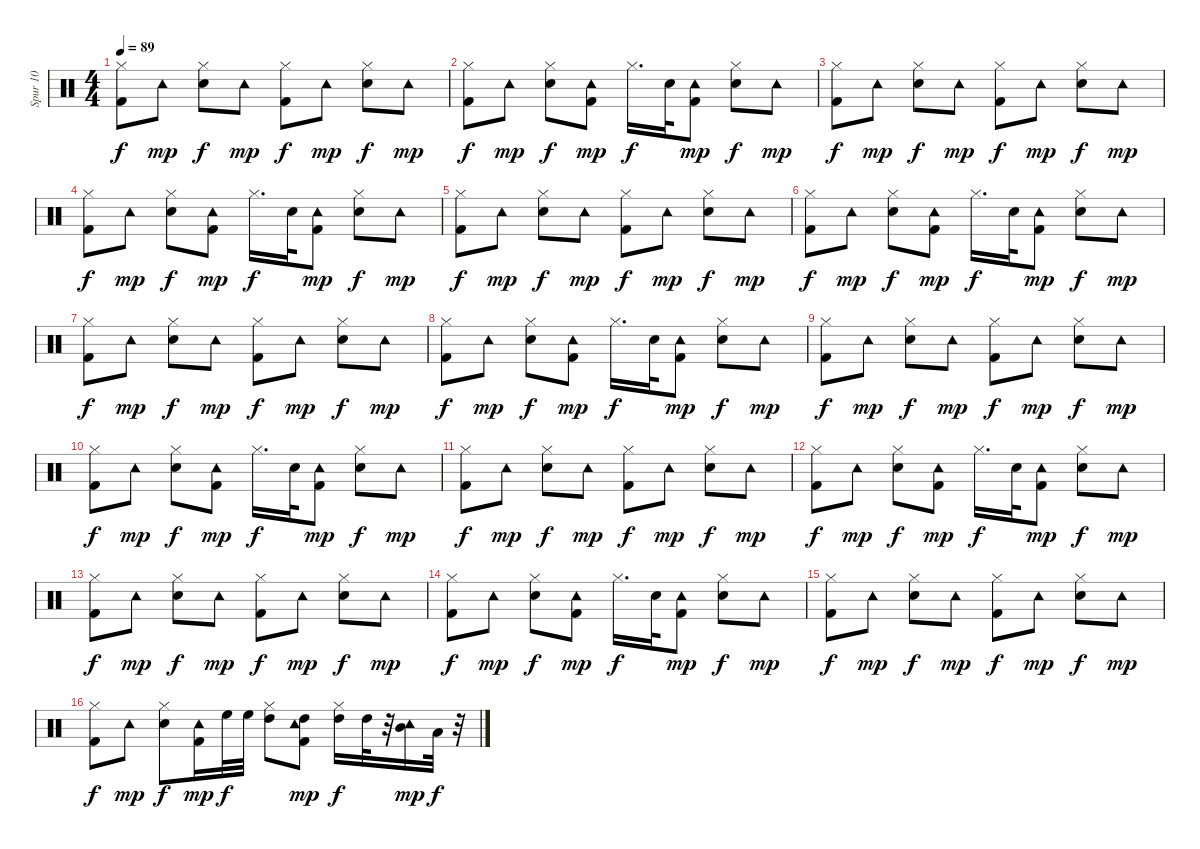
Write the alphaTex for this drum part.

\track ("Spur 10" "Spur 10") {instrument percussion}
\staff {score}
\articulation defaults
\ts (4 4)
\tempo 89
\clef neutral
\ks c
("Kick (hit) 2" "Hi-Hat (closed)").8{dy f} "Tambourine (hit)".8{dy mp} ("Electric Snare (hit)" "Hi-Hat (closed)").8{dy f} "Tambourine (hit)".8{dy mp} ("Kick (hit) 2" "Hi-Hat (closed)").8{dy f} "Tambourine (hit)".8{dy mp} ("Electric Snare (hit)" "Hi-Hat (closed)").8{dy f} "Tambourine (hit)".8{dy mp} |
("Kick (hit) 2" "Hi-Hat (closed)").8{dy f} "Tambourine (hit)".8{dy mp} ("Electric Snare (hit)" "Hi-Hat (closed)").8{dy f} ("Kick (hit) 2" "Tambourine (hit)").8{dy mp} "Hi-Hat (closed)".16{d dy f} "Electric Snare (hit)".32 ("Kick (hit) 2" "Tambourine (hit)").8{dy mp} ("Electric Snare (hit)" "Hi-Hat (closed)").8{dy f} "Tambourine (hit)".8{dy mp} |
("Kick (hit) 2" "Hi-Hat (closed)").8{dy f} "Tambourine (hit)".8{dy mp} ("Electric Snare (hit)" "Hi-Hat (closed)").8{dy f} "Tambourine (hit)".8{dy mp} ("Kick (hit) 2" "Hi-Hat (closed)").8{dy f} "Tambourine (hit)".8{dy mp} ("Electric Snare (hit)" "Hi-Hat (closed)").8{dy f} "Tambourine (hit)".8{dy mp} |
("Kick (hit) 2" "Hi-Hat (closed)").8{dy f} "Tambourine (hit)".8{dy mp} ("Electric Snare (hit)" "Hi-Hat (closed)").8{dy f} ("Kick (hit) 2" "Tambourine (hit)").8{dy mp} "Hi-Hat (closed)".16{d dy f} "Electric Snare (hit)".32 ("Kick (hit) 2" "Tambourine (hit)").8{dy mp} ("Electric Snare (hit)" "Hi-Hat (closed)").8{dy f} "Tambourine (hit)".8{dy mp} |
("Kick (hit) 2" "Hi-Hat (closed)").8{dy f} "Tambourine (hit)".8{dy mp} ("Electric Snare (hit)" "Hi-Hat (closed)").8{dy f} "Tambourine (hit)".8{dy mp} ("Kick (hit) 2" "Hi-Hat (closed)").8{dy f} "Tambourine (hit)".8{dy mp} ("Electric Snare (hit)" "Hi-Hat (closed)").8{dy f} "Tambourine (hit)".8{dy mp} |
("Kick (hit) 2" "Hi-Hat (closed)").8{dy f} "Tambourine (hit)".8{dy mp} ("Electric Snare (hit)" "Hi-Hat (closed)").8{dy f} ("Kick (hit) 2" "Tambourine (hit)").8{dy mp} "Hi-Hat (closed)".16{d dy f} "Electric Snare (hit)".32 ("Kick (hit) 2" "Tambourine (hit)").8{dy mp} ("Electric Snare (hit)" "Hi-Hat (closed)").8{dy f} "Tambourine (hit)".8{dy mp} |
("Kick (hit) 2" "Hi-Hat (closed)").8{dy f} "Tambourine (hit)".8{dy mp} ("Electric Snare (hit)" "Hi-Hat (closed)").8{dy f} "Tambourine (hit)".8{dy mp} ("Kick (hit) 2" "Hi-Hat (closed)").8{dy f} "Tambourine (hit)".8{dy mp} ("Electric Snare (hit)" "Hi-Hat (closed)").8{dy f} "Tambourine (hit)".8{dy mp} |
("Kick (hit) 2" "Hi-Hat (closed)").8{dy f} "Tambourine (hit)".8{dy mp} ("Electric Snare (hit)" "Hi-Hat (closed)").8{dy f} ("Kick (hit) 2" "Tambourine (hit)").8{dy mp} "Hi-Hat (closed)".16{d dy f} "Electric Snare (hit)".32 ("Kick (hit) 2" "Tambourine (hit)").8{dy mp} ("Electric Snare (hit)" "Hi-Hat (closed)").8{dy f} "Tambourine (hit)".8{dy mp} |
("Kick (hit) 2" "Hi-Hat (closed)").8{dy f} "Tambourine (hit)".8{dy mp} ("Electric Snare (hit)" "Hi-Hat (closed)").8{dy f} "Tambourine (hit)".8{dy mp} ("Kick (hit) 2" "Hi-Hat (closed)").8{dy f} "Tambourine (hit)".8{dy mp} ("Electric Snare (hit)" "Hi-Hat (closed)").8{dy f} "Tambourine (hit)".8{dy mp} |
("Kick (hit) 2" "Hi-Hat (closed)").8{dy f} "Tambourine (hit)".8{dy mp} ("Electric Snare (hit)" "Hi-Hat (closed)").8{dy f} ("Kick (hit) 2" "Tambourine (hit)").8{dy mp} "Hi-Hat (closed)".16{d dy f} "Electric Snare (hit)".32 ("Kick (hit) 2" "Tambourine (hit)").8{dy mp} ("Electric Snare (hit)" "Hi-Hat (closed)").8{dy f} "Tambourine (hit)".8{dy mp} |
("Kick (hit) 2" "Hi-Hat (closed)").8{dy f} "Tambourine (hit)".8{dy mp} ("Electric Snare (hit)" "Hi-Hat (closed)").8{dy f} "Tambourine (hit)".8{dy mp} ("Kick (hit) 2" "Hi-Hat (closed)").8{dy f} "Tambourine (hit)".8{dy mp} ("Electric Snare (hit)" "Hi-Hat (closed)").8{dy f} "Tambourine (hit)".8{dy mp} |
("Kick (hit) 2" "Hi-Hat (closed)").8{dy f} "Tambourine (hit)".8{dy mp} ("Electric Snare (hit)" "Hi-Hat (closed)").8{dy f} ("Kick (hit) 2" "Tambourine (hit)").8{dy mp} "Hi-Hat (closed)".16{d dy f} "Electric Snare (hit)".32 ("Kick (hit) 2" "Tambourine (hit)").8{dy mp} ("Electric Snare (hit)" "Hi-Hat (closed)").8{dy f} "Tambourine (hit)".8{dy mp} |
("Kick (hit) 2" "Hi-Hat (closed)").8{dy f} "Tambourine (hit)".8{dy mp} ("Electric Snare (hit)" "Hi-Hat (closed)").8{dy f} "Tambourine (hit)".8{dy mp} ("Kick (hit) 2" "Hi-Hat (closed)").8{dy f} "Tambourine (hit)".8{dy mp} ("Electric Snare (hit)" "Hi-Hat (closed)").8{dy f} "Tambourine (hit)".8{dy mp} |
("Kick (hit) 2" "Hi-Hat (closed)").8{dy f} "Tambourine (hit)".8{dy mp} ("Electric Snare (hit)" "Hi-Hat (closed)").8{dy f} ("Kick (hit) 2" "Tambourine (hit)").8{dy mp} "Hi-Hat (closed)".16{d dy f} "Electric Snare (hit)".32 ("Kick (hit) 2" "Tambourine (hit)").8{dy mp} ("Electric Snare (hit)" "Hi-Hat (closed)").8{dy f} "Tambourine (hit)".8{dy mp} |
("Kick (hit) 2" "Hi-Hat (closed)").8{dy f} "Tambourine (hit)".8{dy mp} ("Electric Snare (hit)" "Hi-Hat (closed)").8{dy f} "Tambourine (hit)".8{dy mp} ("Kick (hit) 2" "Hi-Hat (closed)").8{dy f} "Tambourine (hit)".8{dy mp} ("Electric Snare (hit)" "Hi-Hat (closed)").8{dy f} "Tambourine (hit)".8{dy mp} |
("Kick (hit) 2" "Hi-Hat (closed)").8{dy f} "Tambourine (hit)".8{dy mp} ("Electric Snare (hit)" "Hi-Hat (closed)").8{dy f} ("Kick (hit) 2" "Tambourine (hit)").16{dy mp} "High Floor Tom (hit)".32{dy f} "High Floor Tom (hit)".32 ("High Tom (hit)" "Hi-Hat (closed)").8 ("High Tom (hit)" "Tambourine (hit)" "Kick (hit) 2").8{dy mp} ("High Tom (hit)" "Hi-Hat (closed)").16{dy f} "High Tom (hit)".32 r.32 ("Mid Tom (hit)" "Tambourine (hit)").16{dy mp} "Low Tom (hit)".32{dy f} r.32
